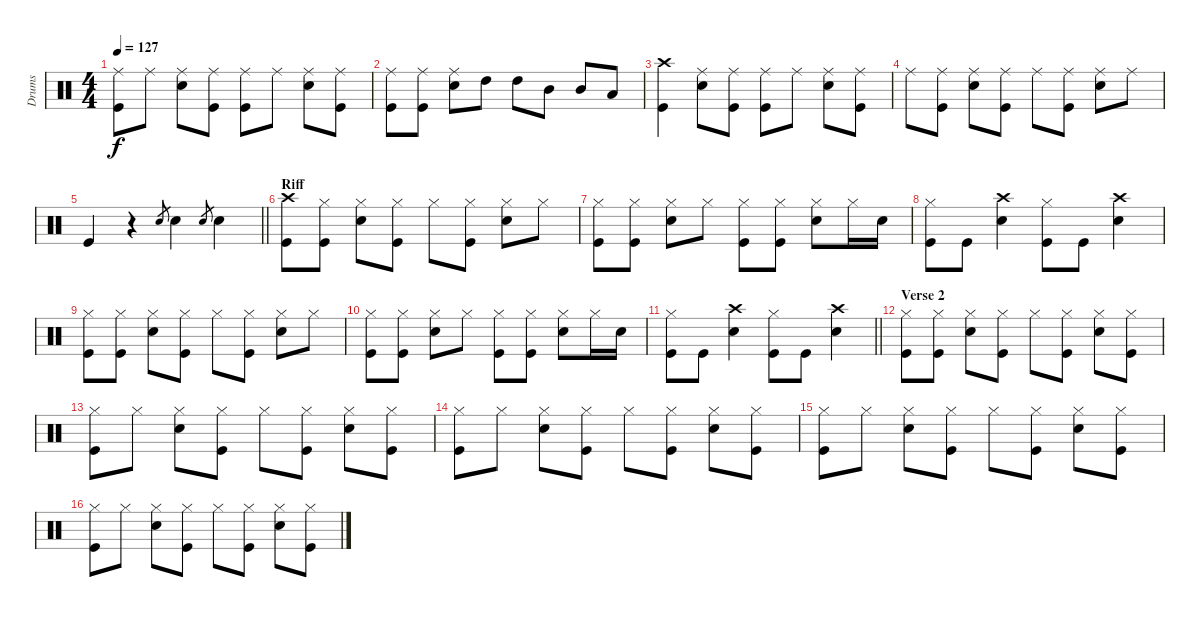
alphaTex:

\track ("Drums" "Drums") {instrument percussion}
\staff {score}
\articulation defaults
\ts (4 4)
\tempo 127
\clef neutral
\ks c
("Ride (middle)" "Kick (hit)").8{dy f} "Ride (middle)".8 ("Ride (middle)" "Snare (hit) 2").8 ("Ride (middle)" "Kick (hit)").8 ("Ride (middle)" "Kick (hit)").8 "Ride (middle)".8 ("Ride (middle)" "Snare (hit) 2").8 ("Ride (middle)" "Kick (hit)").8 |
("Ride (middle)" "Kick (hit)").8 ("Ride (middle)" "Kick (hit)").8 ("Ride (middle)" "Snare (hit) 2").8 "High Tom (hit)".8 "High Tom (hit)".8 "Mid Tom (hit)".8 "Mid Tom (hit)".8 "Low Tom (hit)".8 |
("Crash high (hit)" "Kick (hit)").4 ("Ride (middle)" "Snare (hit) 2").8 ("Kick (hit)" "Ride (middle)").8 ("Ride (middle)" "Kick (hit)").8 "Ride (middle)".8 ("Snare (hit) 2" "Ride (middle)").8 ("Ride (middle)" "Kick (hit)").8 |
"Ride (middle)".8 ("Kick (hit)" "Ride (middle)").8 ("Ride (middle)" "Snare (hit) 2").8 ("Kick (hit)" "Ride (middle)").8 "Ride (middle)".8 ("Ride (middle)" "Kick (hit)").8 ("Snare (hit) 2" "Ride (middle)").8 "Ride (middle)".8 |
\barLineRight lightlight "Kick (hit)".4
r.4 "Snare (hit) 2".8{gr} "Snare (hit) 2".4 "Snare (hit) 2".8{gr} "Snare (hit) 2".4 |
\section ("" "Riff")
("Crash high (hit)" "Kick (hit)").8 ("Hi-Hat (closed)" "Kick (hit)").8 ("Hi-Hat (closed)" "Snare (hit) 2").8 ("Hi-Hat (closed)" "Kick (hit)").8 "Hi-Hat (closed)".8 ("Hi-Hat (closed)" "Kick (hit)").8 ("Hi-Hat (closed)" "Snare (hit) 2").8 "Hi-Hat (closed)".8 |
("Hi-Hat (closed)" "Kick (hit)").8 ("Hi-Hat (closed)" "Kick (hit)").8 ("Hi-Hat (closed)" "Snare (hit) 2").8 "Hi-Hat (closed)".8 ("Hi-Hat (closed)" "Kick (hit)").8 ("Hi-Hat (closed)" "Kick (hit)").8 ("Hi-Hat (closed)" "Snare (hit) 2").8 "Hi-Hat (closed)".16 "Snare (hit) 2".16 |
("Kick (hit)" "Hi-Hat (closed)").8 "Kick (hit)".8 ("Crash high (hit)" "Snare (hit) 2").4 ("Kick (hit)" "Hi-Hat (closed)").8 "Kick (hit)".8 ("Crash high (hit)" "Snare (hit) 2").4 |
("Hi-Hat (closed)" "Kick (hit)").8 ("Hi-Hat (closed)" "Kick (hit)").8 ("Hi-Hat (closed)" "Snare (hit) 2").8 ("Hi-Hat (closed)" "Kick (hit)").8 "Hi-Hat (closed)".8 ("Hi-Hat (closed)" "Kick (hit)").8 ("Hi-Hat (closed)" "Snare (hit) 2").8 "Hi-Hat (closed)".8 |
("Hi-Hat (closed)" "Kick (hit)").8 ("Hi-Hat (closed)" "Kick (hit)").8 ("Hi-Hat (closed)" "Snare (hit) 2").8 "Hi-Hat (closed)".8 ("Hi-Hat (closed)" "Kick (hit)").8 ("Hi-Hat (closed)" "Kick (hit)").8 ("Hi-Hat (closed)" "Snare (hit) 2").8 "Hi-Hat (closed)".16 "Snare (hit) 2".16 |
\barLineRight lightlight
("Kick (hit)" "Hi-Hat (closed)").8 "Kick (hit)".8 ("Crash high (hit)" "Snare (hit) 2").4 ("Kick (hit)" "Hi-Hat (closed)").8 "Kick (hit)".8 ("Crash high (hit)" "Snare (hit) 2").4 |
\section ("" "Verse 2")
("Hi-Hat (closed)" "Kick (hit)").8 ("Hi-Hat (closed)" "Kick (hit)").8 ("Hi-Hat (closed)" "Snare (hit) 2").8 ("Hi-Hat (closed)" "Kick (hit)").8 "Hi-Hat (closed)".8 ("Hi-Hat (closed)" "Kick (hit)").8 ("Hi-Hat (closed)" "Snare (hit) 2").8 ("Hi-Hat (closed)" "Kick (hit)").8 |
("Kick (hit)" "Hi-Hat (closed)").8 "Hi-Hat (closed)".8 ("Snare (hit) 2" "Hi-Hat (closed)").8 ("Kick (hit)" "Hi-Hat (closed)").8 "Hi-Hat (closed)".8 ("Kick (hit)" "Hi-Hat (closed)").8 ("Snare (hit) 2" "Hi-Hat (closed)").8 ("Kick (hit)" "Hi-Hat (closed)").8 |
("Hi-Hat (closed)" "Kick (hit)").8 "Hi-Hat (closed)".8 ("Hi-Hat (closed)" "Snare (hit) 2").8 ("Hi-Hat (closed)" "Kick (hit)").8 "Hi-Hat (closed)".8 ("Hi-Hat (closed)" "Kick (hit)").8 ("Hi-Hat (closed)" "Snare (hit) 2").8 ("Hi-Hat (closed)" "Kick (hit)").8 |
("Kick (hit)" "Hi-Hat (closed)").8 "Hi-Hat (closed)".8 ("Snare (hit) 2" "Hi-Hat (closed)").8 ("Kick (hit)" "Hi-Hat (closed)").8 "Hi-Hat (closed)".8 ("Kick (hit)" "Hi-Hat (closed)").8 ("Snare (hit) 2" "Hi-Hat (closed)").8 ("Kick (hit)" "Hi-Hat (closed)").8 |
("Hi-Hat (closed)" "Kick (hit)").8 "Hi-Hat (closed)".8 ("Hi-Hat (closed)" "Snare (hit) 2").8 ("Hi-Hat (closed)" "Kick (hit)").8 "Hi-Hat (closed)".8 ("Hi-Hat (closed)" "Kick (hit)").8 ("Hi-Hat (closed)" "Snare (hit) 2").8 ("Hi-Hat (closed)" "Kick (hit)").8
